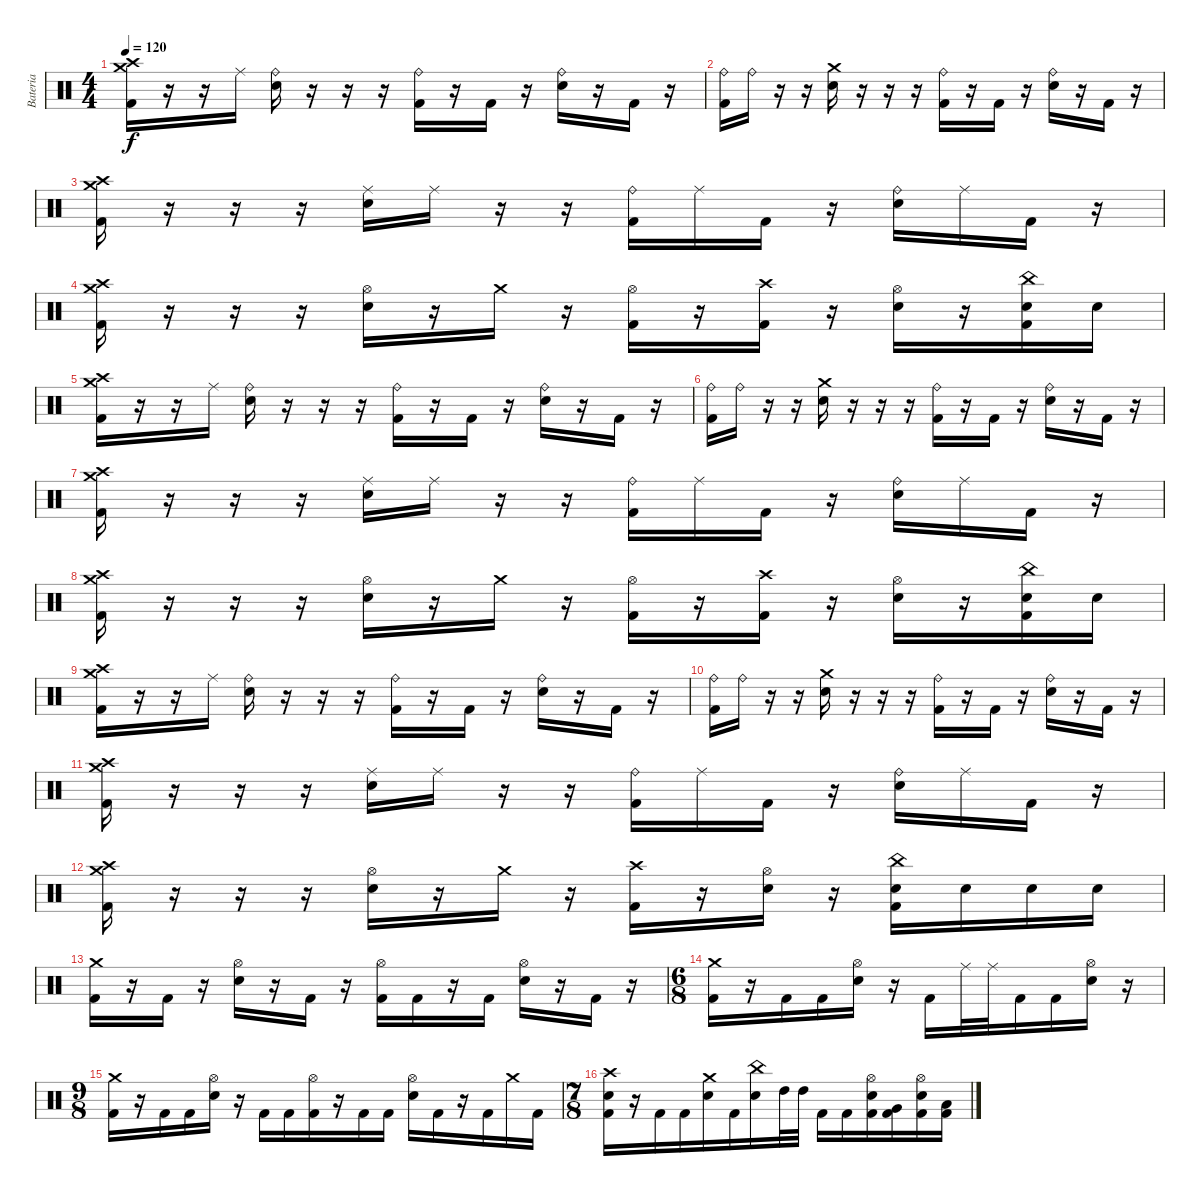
\track ("Bateria" "Bateria") {instrument percussion}
\staff {score}
\articulation defaults
\ts (4 4)
\tempo 120
\clef neutral
\ks c
("Crash medium (hit)" "Crash high (hit)" "Kick (hit) 2").16{dy f} r.16 r.16 "Ride (middle)".16 ("Ride (bell)" "Electric Snare (hit)").16 r.16 r.16 r.16 ("Ride (bell)" "Kick (hit) 2").16 r.16 "Kick (hit) 2".16 r.16 ("Ride (bell)" "Electric Snare (hit)").16 r.16 "Kick (hit) 2".16 r.16 |
("Ride (bell)" "Kick (hit) 2").16 "Ride (bell)".16 r.16 r.16 ("Crash medium (hit)" "Electric Snare (hit)").16 r.16 r.16 r.16 ("Ride (bell)" "Kick (hit) 2").16 r.16 "Kick (hit) 2".16 r.16 ("Ride (bell)" "Electric Snare (hit)").16 r.16 "Kick (hit) 2".16 r.16 |
("Crash medium (hit)" "Crash high (hit)" "Kick (hit) 2").16 r.16 r.16 r.16 ("Ride (middle)" "Electric Snare (hit)").16 "Ride (middle)".16 r.16 r.16 ("Ride (bell)" "Kick (hit) 2").16 "Ride (middle)".16 "Kick (hit) 2".16 r.16 ("Ride (bell)" "Electric Snare (hit)").16 "Ride (middle)".16 "Kick (hit) 2".16 r.16 |
("Crash medium (hit)" "Crash high (hit)" "Kick (hit) 2").16 r.16 r.16 r.16 ("Hi-Hat (open)" "Electric Snare (hit)").16 r.16 "Crash medium (hit)".16 r.16 ("Hi-Hat (open)" "Kick (hit) 2").16 r.16 ("Crash high (hit)" "Kick (hit) 2").16 r.16 ("Hi-Hat (open)" "Electric Snare (hit)").16 r.16 ("China (hit)" "Electric Snare (hit)" "Kick (hit) 2").16 "Electric Snare (hit)".16 |
("Crash medium (hit)" "Crash high (hit)" "Kick (hit) 2").16 r.16 r.16 "Ride (middle)".16 ("Ride (bell)" "Electric Snare (hit)").16 r.16 r.16 r.16 ("Ride (bell)" "Kick (hit) 2").16 r.16 "Kick (hit) 2".16 r.16 ("Ride (bell)" "Electric Snare (hit)").16 r.16 "Kick (hit) 2".16 r.16 |
("Ride (bell)" "Kick (hit) 2").16 "Ride (bell)".16 r.16 r.16 ("Crash medium (hit)" "Electric Snare (hit)").16 r.16 r.16 r.16 ("Ride (bell)" "Kick (hit) 2").16 r.16 "Kick (hit) 2".16 r.16 ("Ride (bell)" "Electric Snare (hit)").16 r.16 "Kick (hit) 2".16 r.16 |
("Crash medium (hit)" "Crash high (hit)" "Kick (hit) 2").16 r.16 r.16 r.16 ("Ride (middle)" "Electric Snare (hit)").16 "Ride (middle)".16 r.16 r.16 ("Ride (bell)" "Kick (hit) 2").16 "Ride (middle)".16 "Kick (hit) 2".16 r.16 ("Ride (bell)" "Electric Snare (hit)").16 "Ride (middle)".16 "Kick (hit) 2".16 r.16 |
("Crash medium (hit)" "Crash high (hit)" "Kick (hit) 2").16 r.16 r.16 r.16 ("Hi-Hat (open)" "Electric Snare (hit)").16 r.16 "Crash medium (hit)".16 r.16 ("Hi-Hat (open)" "Kick (hit) 2").16 r.16 ("Crash high (hit)" "Kick (hit) 2").16 r.16 ("Hi-Hat (open)" "Electric Snare (hit)").16 r.16 ("China (hit)" "Electric Snare (hit)" "Kick (hit) 2").16 "Electric Snare (hit)".16 |
("Crash medium (hit)" "Crash high (hit)" "Kick (hit) 2").16 r.16 r.16 "Ride (middle)".16 ("Ride (bell)" "Electric Snare (hit)").16 r.16 r.16 r.16 ("Ride (bell)" "Kick (hit) 2").16 r.16 "Kick (hit) 2".16 r.16 ("Ride (bell)" "Electric Snare (hit)").16 r.16 "Kick (hit) 2".16 r.16 |
("Ride (bell)" "Kick (hit) 2").16 "Ride (bell)".16 r.16 r.16 ("Crash medium (hit)" "Electric Snare (hit)").16 r.16 r.16 r.16 ("Ride (bell)" "Kick (hit) 2").16 r.16 "Kick (hit) 2".16 r.16 ("Ride (bell)" "Electric Snare (hit)").16 r.16 "Kick (hit) 2".16 r.16 |
("Crash medium (hit)" "Crash high (hit)" "Kick (hit) 2").16 r.16 r.16 r.16 ("Ride (middle)" "Electric Snare (hit)").16 "Ride (middle)".16 r.16 r.16 ("Ride (bell)" "Kick (hit) 2").16 "Ride (middle)".16 "Kick (hit) 2".16 r.16 ("Ride (bell)" "Electric Snare (hit)").16 "Ride (middle)".16 "Kick (hit) 2".16 r.16 |
("Crash medium (hit)" "Crash high (hit)" "Kick (hit) 2").16 r.16 r.16 r.16 ("Hi-Hat (open)" "Electric Snare (hit)").16 r.16 "Crash medium (hit)".16 r.16 ("Crash high (hit)" "Kick (hit) 2").16 r.16 ("Hi-Hat (open)" "Electric Snare (hit)").16 r.16 ("China (hit)" "Electric Snare (hit)" "Kick (hit) 2").16 "Electric Snare (hit)".16 "Electric Snare (hit)".16 "Electric Snare (hit)".16 |
("Crash medium (hit)" "Kick (hit) 2").16 r.16 "Kick (hit) 2".16 r.16 ("Hi-Hat (open)" "Electric Snare (hit)").16 r.16 "Kick (hit) 2".16 r.16 ("Hi-Hat (open)" "Kick (hit) 2").16 "Kick (hit) 2".16 r.16 "Kick (hit) 2".16 ("Hi-Hat (open)" "Electric Snare (hit)").16 r.16 "Kick (hit) 2".16 r.16 |
\ts (6 8)
("Crash medium (hit)" "Kick (hit) 2").16 r.16 "Kick (hit) 2".16 "Kick (hit) 2".16 ("Hi-Hat (open)" "Electric Snare (hit)").16 r.16 "Kick (hit) 2".16 "Ride (middle)".32 "Ride (middle)".32 "Kick (hit) 2".16 "Kick (hit) 2".16 ("Hi-Hat (open)" "Electric Snare (hit)").16 r.16 |
\ts (9 8)
("Crash medium (hit)" "Kick (hit) 2").16 r.16 "Kick (hit) 2".16 "Kick (hit) 2".16 ("Hi-Hat (open)" "Electric Snare (hit)").16 r.16 "Kick (hit) 2".16 "Kick (hit) 2".16 ("Hi-Hat (open)" "Kick (hit) 2").16 r.16 "Kick (hit) 2".16 "Kick (hit) 2".16 ("Hi-Hat (open)" "Electric Snare (hit)").16 "Kick (hit) 2".16 r.16 "Kick (hit) 2".16 "Crash medium (hit)".16 "Kick (hit) 2".16 |
\ts (7 8)
("Crash high (hit)" "Electric Snare (hit)" "Kick (hit) 2").16 r.16 "Kick (hit) 2".16 "Kick (hit) 2".16 ("Crash medium (hit)" "Electric Snare (hit)").16 "Kick (hit) 2".16 ("China (hit)" "Electric Snare (hit)").16 "High Tom (hit)".32 "High Tom (hit)".32 "Kick (hit) 2".16 "Kick (hit) 2".16 ("Hi-Hat (open)" "Electric Snare (hit)" "Kick (hit) 2").16 ("Very Low Tom (hit)" "Kick (hit) 2").16 ("Hi-Hat (open)" "Electric Snare (hit)" "Kick (hit) 2").16 ("Low Tom (hit)" "Kick (hit) 2").16
